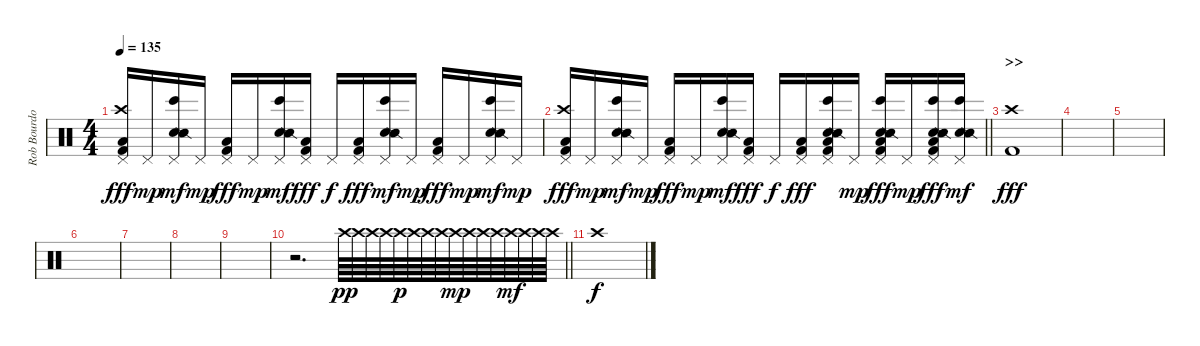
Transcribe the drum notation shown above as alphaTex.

\track ("Rob Bourdon - Beats & Drums" "Rob Bourdo") {instrument percussion}
\staff {score}
\articulation defaults
\ts (4 4)
\tempo 135
\clef neutral
\ks c
("Low Floor Tom (hit)" "Crash high (hit)" "Pedal Hi-Hat (hit)" "Kick (hit) 2").16{dy fff} "Pedal Hi-Hat (hit)".16{dy mp} ("Bongo High (hit)" "Electric Snare (hit)" "Snare (side stick) 2" "Pedal Hi-Hat (hit)").16{dy mf} "Pedal Hi-Hat (hit)".16{dy mp} ("Low Floor Tom (hit)" "Pedal Hi-Hat (hit)" "Kick (hit) 2").16{dy fff} "Pedal Hi-Hat (hit)".16{dy mp} ("Bongo High (hit)" "Electric Snare (hit)" "Snare (side stick) 2" "Pedal Hi-Hat (hit)").16{dy mf} ("Low Floor Tom (hit)" "Pedal Hi-Hat (hit)" "Kick (hit) 2").16{dy fff} "Pedal Hi-Hat (hit)".16{dy f} ("Low Floor Tom (hit)" "Pedal Hi-Hat (hit)" "Kick (hit) 2").16{dy fff} ("Bongo High (hit)" "Electric Snare (hit)" "Snare (side stick) 2" "Pedal Hi-Hat (hit)").16{dy mf} "Pedal Hi-Hat (hit)".16{dy mp} ("Low Floor Tom (hit)" "Pedal Hi-Hat (hit)" "Kick (hit) 2").16{dy fff} "Pedal Hi-Hat (hit)".16{dy mp} ("Bongo High (hit)" "Electric Snare (hit)" "Snare (side stick) 2" "Pedal Hi-Hat (hit)").16{dy mf} "Pedal Hi-Hat (hit)".16{dy mp} |
\barLineRight lightlight
("Low Floor Tom (hit)" "Crash high (hit)" "Pedal Hi-Hat (hit)" "Kick (hit) 2").16{dy fff} "Pedal Hi-Hat (hit)".16{dy mp} ("Bongo High (hit)" "Electric Snare (hit)" "Snare (side stick) 2" "Pedal Hi-Hat (hit)").16{dy mf} "Pedal Hi-Hat (hit)".16{dy mp} ("Low Floor Tom (hit)" "Pedal Hi-Hat (hit)" "Kick (hit) 2").16{dy fff} "Pedal Hi-Hat (hit)".16{dy mp} ("Bongo High (hit)" "Electric Snare (hit)" "Snare (side stick) 2" "Pedal Hi-Hat (hit)").16{dy mf} ("Low Floor Tom (hit)" "Pedal Hi-Hat (hit)" "Kick (hit) 2").16{dy fff} "Pedal Hi-Hat (hit)".16{dy f} ("Low Floor Tom (hit)" "Pedal Hi-Hat (hit)" "Kick (hit) 2").16{dy fff} ("Low Floor Tom (hit)" "Bongo High (hit)" "Electric Snare (hit)" "Snare (side stick) 2" "Pedal Hi-Hat (hit)" "Kick (hit) 2").16 "Pedal Hi-Hat (hit)".16{dy mp} ("Low Floor Tom (hit)" "Bongo High (hit)" "Electric Snare (hit)" "Snare (side stick) 2" "Pedal Hi-Hat (hit)" "Kick (hit) 2").16{dy fff} "Pedal Hi-Hat (hit)".16{dy mp} ("Low Floor Tom (hit)" "Bongo High (hit)" "Electric Snare (hit)" "Snare (side stick) 2" "Pedal Hi-Hat (hit)" "Kick (hit) 2").16{dy fff} ("Bongo High (hit)" "Electric Snare (hit)" "Snare (side stick) 2" "Pedal Hi-Hat (hit)").16{dy mf} |
\section ("" ">>")
("Crash high (hit)" "Kick (hit) 2").1{dy fff} |
|
|
|
|
|
|
\barLineRight lightlight
r.2{d} "Crash high (hit)".64{dy pp} "Crash high (hit)".64 "Crash high (hit)".64 "Crash high (hit)".64 "Crash high (hit)".64{dy p} "Crash high (hit)".64 "Crash high (hit)".64 "Crash high (hit)".64 "Crash high (hit)".64{dy mp} "Crash high (hit)".64 "Crash high (hit)".64 "Crash high (hit)".64 "Crash high (hit)".64{dy mf} "Crash high (hit)".64 "Crash high (hit)".64 "Crash high (hit)".64 |
\section ("" "")
"Crash high (hit)".1{dy f}
